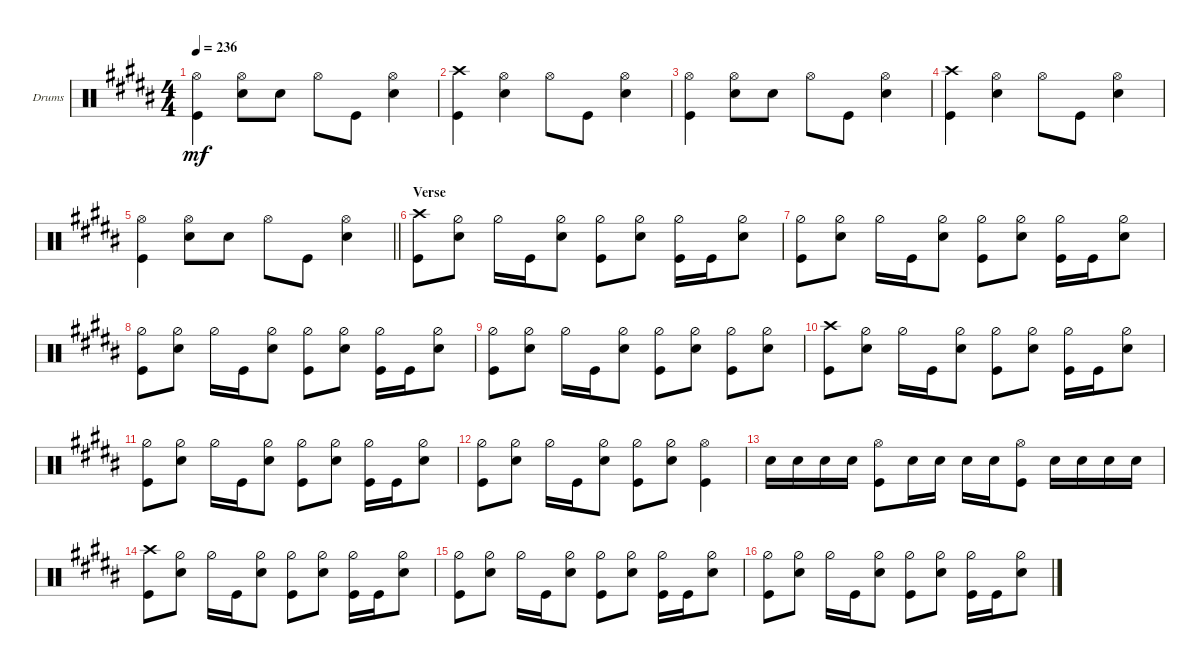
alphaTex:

\defaultSystemsLayout 4
\bracketExtendMode groupsimilarinstruments
\firstSystemTrackNameOrientation horizontal
\otherSystemsTrackNameOrientation horizontal
\track ("Drums" "Drums") {instrument percussion}
\staff {score}
\articulation defaults
\ts (4 4)
\tempo 236
\clef neutral
\ks b
("Kick (hit)" "Hi-Hat (open)").4{dy mf} ("Hi-Hat (open)" "Snare (hit) 2").8 "Snare (hit) 2".8 "Hi-Hat (open)".8 "Kick (hit)".8 ("Snare (hit) 2" "Hi-Hat (open)").4 |
("Kick (hit)" "Crash high (hit)").4 ("Snare (hit) 2" "Hi-Hat (open)").4 "Hi-Hat (open)".8 "Kick (hit)".8 ("Snare (hit) 2" "Hi-Hat (open)").4 |
("Kick (hit)" "Hi-Hat (open)").4 ("Hi-Hat (open)" "Snare (hit) 2").8 "Snare (hit) 2".8 "Hi-Hat (open)".8 "Kick (hit)".8 ("Snare (hit) 2" "Hi-Hat (open)").4 |
("Kick (hit)" "Crash high (hit)").4 ("Snare (hit) 2" "Hi-Hat (open)").4 "Hi-Hat (open)".8 "Kick (hit)".8 ("Snare (hit) 2" "Hi-Hat (open)").4 |
\barLineRight lightlight
("Kick (hit)" "Hi-Hat (open)").4 ("Hi-Hat (open)" "Snare (hit) 2").8 "Snare (hit) 2".8 "Hi-Hat (open)".8 "Kick (hit)".8 ("Snare (hit) 2" "Hi-Hat (open)").4 |
\section ("" "Verse")
("Kick (hit)" "Crash high (hit)").8 ("Hi-Hat (half)" "Snare (hit) 2").8 "Hi-Hat (half)".16 "Kick (hit)".16 ("Hi-Hat (half)" "Snare (hit) 2").8 ("Hi-Hat (half)" "Kick (hit)").8 ("Hi-Hat (half)" "Snare (hit) 2").8 ("Hi-Hat (half)" "Kick (hit)").16 "Kick (hit)".16 ("Hi-Hat (half)" "Snare (hit) 2").8 |
("Hi-Hat (half)" "Kick (hit)").8 ("Hi-Hat (half)" "Snare (hit) 2").8 "Hi-Hat (half)".16 "Kick (hit)".16 ("Hi-Hat (half)" "Snare (hit) 2").8 ("Hi-Hat (half)" "Kick (hit)").8 ("Hi-Hat (half)" "Snare (hit) 2").8 ("Hi-Hat (half)" "Kick (hit)").16 "Kick (hit)".16 ("Hi-Hat (half)" "Snare (hit) 2").8 |
("Hi-Hat (half)" "Kick (hit)").8 ("Hi-Hat (half)" "Snare (hit) 2").8 "Hi-Hat (half)".16 "Kick (hit)".16 ("Hi-Hat (half)" "Snare (hit) 2").8 ("Hi-Hat (half)" "Kick (hit)").8 ("Hi-Hat (half)" "Snare (hit) 2").8 ("Hi-Hat (half)" "Kick (hit)").16 "Kick (hit)".16 ("Hi-Hat (half)" "Snare (hit) 2").8 |
("Hi-Hat (half)" "Kick (hit)").8 ("Hi-Hat (half)" "Snare (hit) 2").8 "Hi-Hat (half)".16 "Kick (hit)".16 ("Hi-Hat (half)" "Snare (hit) 2").8 ("Hi-Hat (half)" "Kick (hit)").8 ("Hi-Hat (half)" "Snare (hit) 2").8 ("Hi-Hat (half)" "Kick (hit)").8 ("Hi-Hat (half)" "Snare (hit) 2").8 |
("Kick (hit)" "Crash high (hit)").8 ("Hi-Hat (half)" "Snare (hit) 2").8 "Hi-Hat (half)".16 "Kick (hit)".16 ("Hi-Hat (half)" "Snare (hit) 2").8 ("Hi-Hat (half)" "Kick (hit)").8 ("Hi-Hat (half)" "Snare (hit) 2").8 ("Hi-Hat (half)" "Kick (hit)").16 "Kick (hit)".16 ("Hi-Hat (half)" "Snare (hit) 2").8 |
("Hi-Hat (half)" "Kick (hit)").8 ("Hi-Hat (half)" "Snare (hit) 2").8 "Hi-Hat (half)".16 "Kick (hit)".16 ("Hi-Hat (half)" "Snare (hit) 2").8 ("Hi-Hat (half)" "Kick (hit)").8 ("Hi-Hat (half)" "Snare (hit) 2").8 ("Hi-Hat (half)" "Kick (hit)").16 "Kick (hit)".16 ("Hi-Hat (half)" "Snare (hit) 2").8 |
("Hi-Hat (half)" "Kick (hit)").8 ("Hi-Hat (half)" "Snare (hit) 2").8 "Hi-Hat (half)".16 "Kick (hit)".16 ("Hi-Hat (half)" "Snare (hit) 2").8 ("Hi-Hat (half)" "Kick (hit)").8 ("Hi-Hat (half)" "Snare (hit) 2").8 ("Kick (hit)" "Hi-Hat (open)").4 |
"Snare (hit) 2".16 "Snare (hit) 2".16 "Snare (hit) 2".16 "Snare (hit) 2".16 ("Kick (hit)" "Hi-Hat (open)").8 "Snare (hit) 2".16 "Snare (hit) 2".16 "Snare (hit) 2".16 "Snare (hit) 2".16 ("Kick (hit)" "Hi-Hat (open)").8 "Snare (hit) 2".16 "Snare (hit) 2".16 "Snare (hit) 2".16 "Snare (hit) 2".16 |
("Kick (hit)" "Crash high (hit)").8 ("Hi-Hat (half)" "Snare (hit) 2").8 "Hi-Hat (half)".16 "Kick (hit)".16 ("Hi-Hat (half)" "Snare (hit) 2").8 ("Hi-Hat (half)" "Kick (hit)").8 ("Hi-Hat (half)" "Snare (hit) 2").8 ("Hi-Hat (half)" "Kick (hit)").16 "Kick (hit)".16 ("Hi-Hat (half)" "Snare (hit) 2").8 |
("Hi-Hat (half)" "Kick (hit)").8 ("Hi-Hat (half)" "Snare (hit) 2").8 "Hi-Hat (half)".16 "Kick (hit)".16 ("Hi-Hat (half)" "Snare (hit) 2").8 ("Hi-Hat (half)" "Kick (hit)").8 ("Hi-Hat (half)" "Snare (hit) 2").8 ("Hi-Hat (half)" "Kick (hit)").16 "Kick (hit)".16 ("Hi-Hat (half)" "Snare (hit) 2").8 |
("Hi-Hat (half)" "Kick (hit)").8 ("Hi-Hat (half)" "Snare (hit) 2").8 "Hi-Hat (half)".16 "Kick (hit)".16 ("Hi-Hat (half)" "Snare (hit) 2").8 ("Hi-Hat (half)" "Kick (hit)").8 ("Hi-Hat (half)" "Snare (hit) 2").8 ("Hi-Hat (half)" "Kick (hit)").16 "Kick (hit)".16 ("Hi-Hat (half)" "Snare (hit) 2").8
